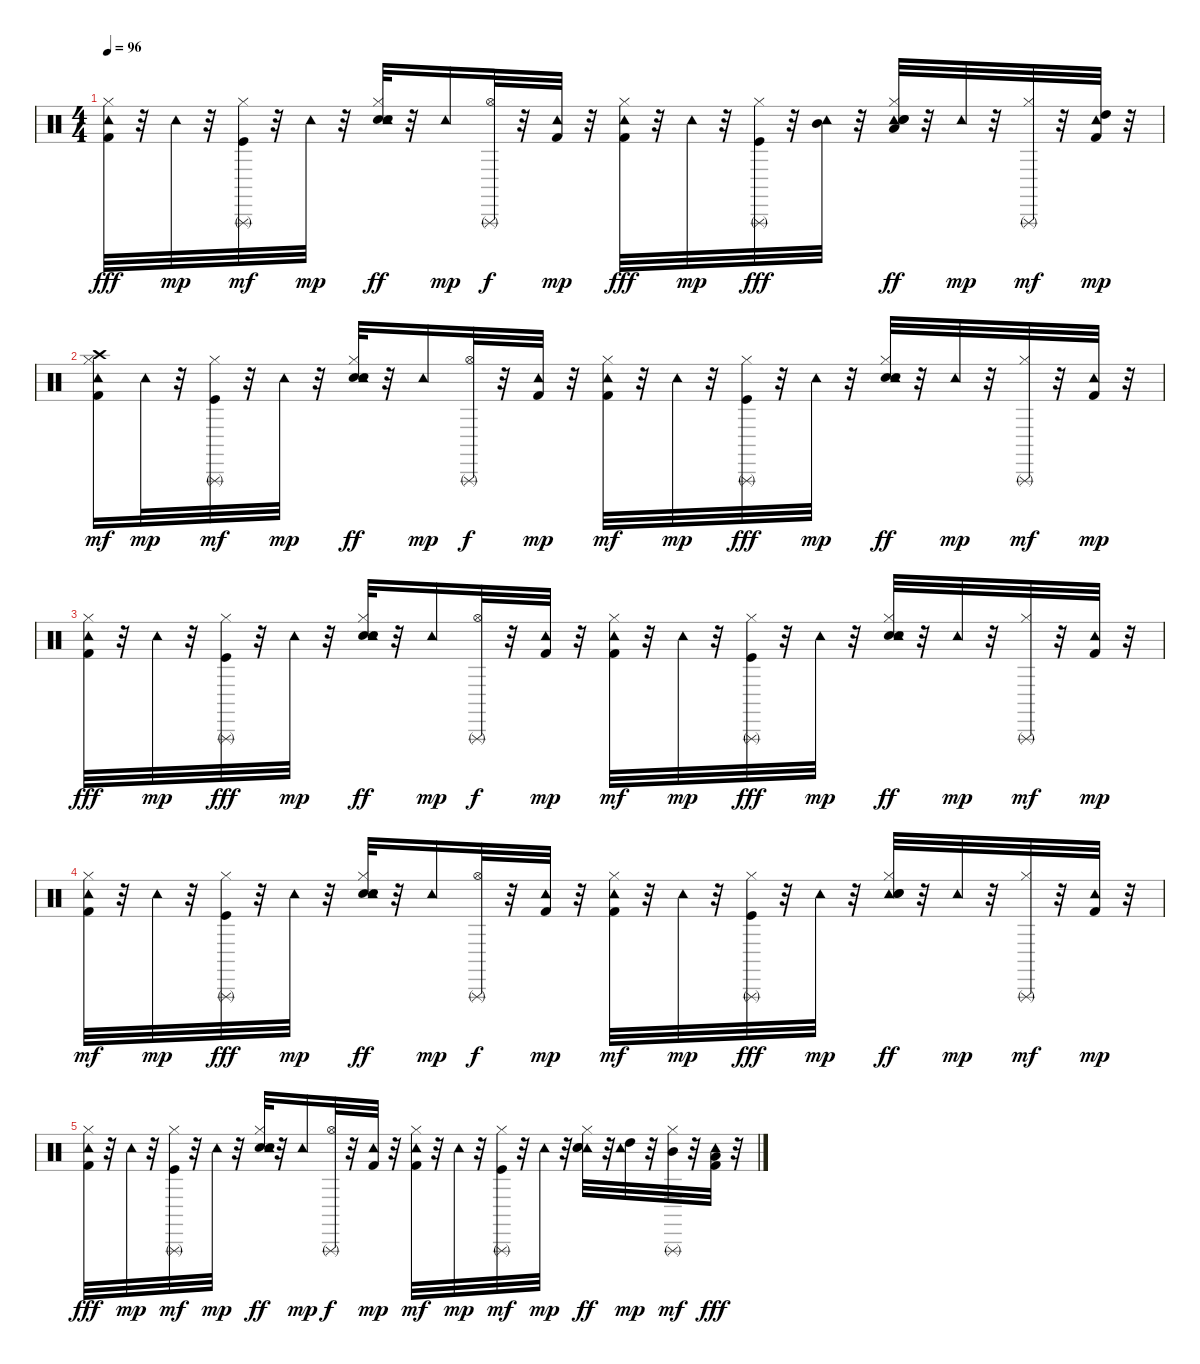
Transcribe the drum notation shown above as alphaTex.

\track "" {instrument percussion}
\staff {score}
\articulation defaults
\ts (4 4)
\tempo 96
\clef neutral
\ks c
("Tambourine (hit)" "Kick (hit) 2" "Hi-Hat (closed)").32{dy fff} r.32 "Tambourine (hit)".32{dy mp} r.32 ("Triangle (rnute)" "Kick (hit)" "Hi-Hat (closed)").32{dy mf} r.32 "Tambourine (hit)".32{dy mp} r.32 ("Snare (hit) 2" "Hi-Hat (closed)" "Tambourine (hit)" "Hand Clap (hit)").32{dy ff} r.32 "Tambourine (hit)".16{dy mp} ("Triangle (rnute)" "Hi-Hat (open)").32{dy f} r.32 ("Tambourine (hit)" "Kick (hit) 2").32{dy mp} r.32 ("Tambourine (hit)" "Kick (hit) 2" "Hi-Hat (closed)").32{dy fff} r.32 "Tambourine (hit)".32{dy mp} r.32 ("Triangle (rnute)" "Hi-Hat (closed)" "Kick (hit)").32{dy fff} r.32 ("Tambourine (hit)" "Mid Tom (hit)").32 r.32 ("Hi-Hat (closed)" "Tambourine (hit)" "Low Tom (hit)" "Snare (hit) 2" "Hand Clap (hit)").32{dy ff} r.32 "Tambourine (hit)".32{dy mp} r.32 ("Triangle (rnute)" "Hi-Hat (closed)").32{dy mf} r.32 ("Kick (hit) 2" "High Tom (hit)" "Tambourine (hit)").32{dy mp} r.32 |
("Crash high (hit)" "Hi-Hat (closed)" "Kick (hit) 2" "Tambourine (hit)").16{dy mf} "Tambourine (hit)".32{dy mp} r.32 ("Kick (hit)" "Hi-Hat (closed)" "Triangle (rnute)").32{dy mf} r.32 "Tambourine (hit)".32{dy mp} r.32 ("Hi-Hat (closed)" "Snare (hit) 2" "Tambourine (hit)" "Hand Clap (hit)").32{dy ff} r.32 "Tambourine (hit)".16{dy mp} ("Hi-Hat (open)" "Triangle (rnute)").32{dy f} r.32 ("Tambourine (hit)" "Kick (hit) 2").32{dy mp} r.32 ("Hi-Hat (closed)" "Kick (hit) 2" "Tambourine (hit)").32{dy mf} r.32 "Tambourine (hit)".32{dy mp} r.32 ("Triangle (rnute)" "Hi-Hat (closed)" "Kick (hit)").32{dy fff} r.32 "Tambourine (hit)".32{dy mp} r.32 ("Hi-Hat (closed)" "Snare (hit) 2" "Tambourine (hit)" "Hand Clap (hit)").32{dy ff} r.32 "Tambourine (hit)".32{dy mp} r.32 ("Triangle (rnute)" "Hi-Hat (closed)").32{dy mf} r.32 ("Kick (hit) 2" "Tambourine (hit)").32{dy mp} r.32 |
("Tambourine (hit)" "Hi-Hat (closed)" "Kick (hit) 2").32{dy fff} r.32 "Tambourine (hit)".32{dy mp} r.32 ("Triangle (rnute)" "Hi-Hat (closed)" "Kick (hit)").32{dy fff} r.32 "Tambourine (hit)".32{dy mp} r.32 ("Hi-Hat (closed)" "Snare (hit) 2" "Tambourine (hit)" "Hand Clap (hit)").32{dy ff} r.32 "Tambourine (hit)".16{dy mp} ("Hi-Hat (open)" "Triangle (rnute)").32{dy f} r.32 ("Kick (hit) 2" "Tambourine (hit)").32{dy mp} r.32 ("Kick (hit) 2" "Tambourine (hit)" "Hi-Hat (closed)").32{dy mf} r.32 "Tambourine (hit)".32{dy mp} r.32 ("Triangle (rnute)" "Hi-Hat (closed)" "Kick (hit)").32{dy fff} r.32 "Tambourine (hit)".32{dy mp} r.32 ("Snare (hit) 2" "Hi-Hat (closed)" "Tambourine (hit)" "Hand Clap (hit)").32{dy ff} r.32 "Tambourine (hit)".32{dy mp} r.32 ("Hi-Hat (closed)" "Triangle (rnute)").32{dy mf} r.32 ("Kick (hit) 2" "Tambourine (hit)").32{dy mp} r.32 |
("Hi-Hat (closed)" "Kick (hit) 2" "Tambourine (hit)").32{dy mf} r.32 "Tambourine (hit)".32{dy mp} r.32 ("Hi-Hat (closed)" "Kick (hit)" "Triangle (rnute)").32{dy fff} r.32 "Tambourine (hit)".32{dy mp} r.32 ("Hi-Hat (closed)" "Snare (hit) 2" "Tambourine (hit)" "Hand Clap (hit)").32{dy ff} r.32 "Tambourine (hit)".16{dy mp} ("Triangle (rnute)" "Hi-Hat (open)").32{dy f} r.32 ("Kick (hit) 2" "Tambourine (hit)").32{dy mp} r.32 ("Hi-Hat (closed)" "Kick (hit) 2" "Tambourine (hit)").32{dy mf} r.32 "Tambourine (hit)".32{dy mp} r.32 ("Hi-Hat (closed)" "Kick (hit)" "Triangle (rnute)").32{dy fff} r.32 "Tambourine (hit)".32{dy mp} r.32 ("Tambourine (hit)" "Snare (hit) 2" "Hi-Hat (closed)" "Hand Clap (hit)").32{dy ff} r.32 "Tambourine (hit)".32{dy mp} r.32 ("Triangle (rnute)" "Hi-Hat (closed)").32{dy mf} r.32 ("Tambourine (hit)" "Kick (hit) 2").32{dy mp} r.32 |
("Hi-Hat (closed)" "Tambourine (hit)" "Kick (hit) 2").32{dy fff} r.32 "Tambourine (hit)".32{dy mp} r.32 ("Kick (hit)" "Triangle (rnute)" "Hi-Hat (closed)").32{dy mf} r.32 "Tambourine (hit)".32{dy mp} r.32 ("Hi-Hat (closed)" "Snare (hit) 2" "Tambourine (hit)" "Hand Clap (hit)").32{dy ff} r.32 "Tambourine (hit)".16{dy mp} ("Hi-Hat (open)" "Triangle (rnute)").32{dy f} r.32 ("Kick (hit) 2" "Tambourine (hit)").32{dy mp} r.32 ("Kick (hit) 2" "Tambourine (hit)" "Hi-Hat (closed)").32{dy mf} r.32 "Tambourine (hit)".32{dy mp} r.32 ("Kick (hit)" "Triangle (rnute)" "Hi-Hat (closed)").32{dy mf} r.32 "Tambourine (hit)".32{dy mp} r.32 ("Hi-Hat (closed)" "Tambourine (hit)" "Snare (hit) 2" "Hand Clap (hit)").32{dy ff} r.32 ("High Tom (hit)" "Tambourine (hit)").32{dy mp} r.32 ("Mid Tom (hit)" "Triangle (rnute)" "Hi-Hat (closed)").32{dy mf} r.32 ("Kick (hit) 2" "Tambourine (hit)" "Low Tom (hit)").32{dy fff} r.32
